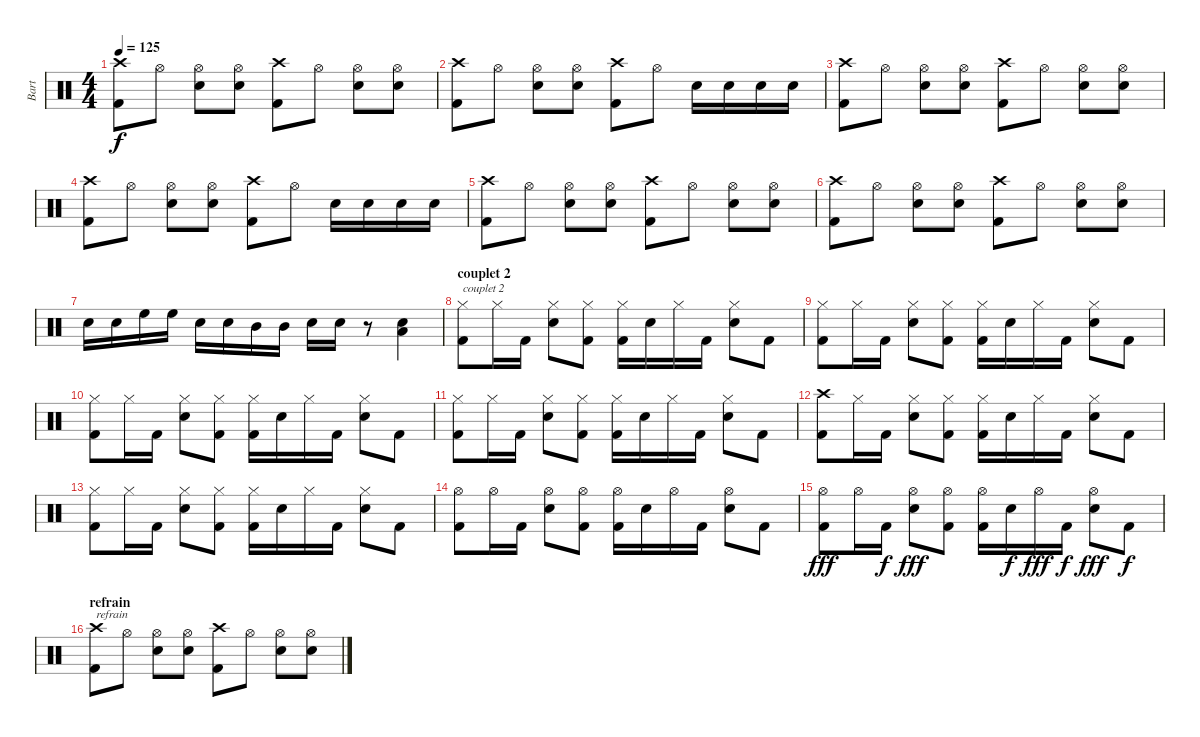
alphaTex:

\track ("Bart" "Bart") {instrument percussion}
\staff {score}
\articulation defaults
\ts (4 4)
\tempo 125
\clef neutral
\ks c
("Crash high (hit)" "Kick (hit) 2").8{dy f} "Hi-Hat (open)".8 ("Hi-Hat (open)" "Snare (hit) 2").8 ("Hi-Hat (open)" "Snare (hit) 2").8 ("Crash high (hit)" "Kick (hit) 2").8 "Hi-Hat (open)".8 ("Hi-Hat (open)" "Snare (hit) 2").8 ("Hi-Hat (open)" "Snare (hit) 2").8 |
("Crash high (hit)" "Kick (hit) 2").8 "Hi-Hat (open)".8 ("Hi-Hat (open)" "Snare (hit) 2").8 ("Hi-Hat (open)" "Snare (hit) 2").8 ("Crash high (hit)" "Kick (hit) 2").8 "Hi-Hat (open)".8 "Snare (hit) 2".16 "Snare (hit) 2".16 "Snare (hit) 2".16 "Snare (hit) 2".16 |
("Crash high (hit)" "Kick (hit) 2").8 "Hi-Hat (open)".8 ("Hi-Hat (open)" "Snare (hit) 2").8 ("Hi-Hat (open)" "Snare (hit) 2").8 ("Crash high (hit)" "Kick (hit) 2").8 "Hi-Hat (open)".8 ("Hi-Hat (open)" "Snare (hit) 2").8 ("Hi-Hat (open)" "Snare (hit) 2").8 |
("Crash high (hit)" "Kick (hit) 2").8 "Hi-Hat (open)".8 ("Hi-Hat (open)" "Snare (hit) 2").8 ("Hi-Hat (open)" "Snare (hit) 2").8 ("Crash high (hit)" "Kick (hit) 2").8 "Hi-Hat (open)".8 "Snare (hit) 2".16 "Snare (hit) 2".16 "Snare (hit) 2".16 "Snare (hit) 2".16 |
("Crash high (hit)" "Kick (hit) 2").8 "Hi-Hat (open)".8 ("Hi-Hat (open)" "Snare (hit) 2").8 ("Hi-Hat (open)" "Snare (hit) 2").8 ("Crash high (hit)" "Kick (hit) 2").8 "Hi-Hat (open)".8 ("Hi-Hat (open)" "Snare (hit) 2").8 ("Hi-Hat (open)" "Snare (hit) 2").8 |
("Crash high (hit)" "Kick (hit) 2").8 "Hi-Hat (open)".8 ("Hi-Hat (open)" "Snare (hit) 2").8 ("Hi-Hat (open)" "Snare (hit) 2").8 ("Crash high (hit)" "Kick (hit) 2").8 "Hi-Hat (open)".8 ("Hi-Hat (open)" "Snare (hit) 2").8 ("Hi-Hat (open)" "Snare (hit) 2").8 |
"Snare (hit) 2".16 "Snare (hit) 2".16 "High Floor Tom (hit)".16 "High Floor Tom (hit)".16 "Snare (hit) 2".16 "Snare (hit) 2".16 "Mid Tom (hit)".16 "Mid Tom (hit)".16 "Snare (hit) 2".16 "Snare (hit) 2".16 r.8 ("Snare (hit) 2" "Low Floor Tom (hit)").4 |
\section ("" "couplet 2")
("Hi-Hat (closed)" "Kick (hit) 2").8{txt "couplet 2"} "Hi-Hat (closed)".16 "Kick (hit) 2".16 ("Hi-Hat (closed)" "Snare (hit) 2").8 ("Hi-Hat (closed)" "Kick (hit) 2").8 ("Hi-Hat (closed)" "Kick (hit) 2").16 "Snare (hit) 2".16 "Hi-Hat (closed)".16 "Kick (hit) 2".16 ("Hi-Hat (closed)" "Snare (hit) 2").8 "Kick (hit) 2".8 |
("Hi-Hat (closed)" "Kick (hit) 2").8 "Hi-Hat (closed)".16 "Kick (hit) 2".16 ("Hi-Hat (closed)" "Snare (hit) 2").8 ("Hi-Hat (closed)" "Kick (hit) 2").8 ("Hi-Hat (closed)" "Kick (hit) 2").16 "Snare (hit) 2".16 "Hi-Hat (closed)".16 "Kick (hit) 2".16 ("Hi-Hat (closed)" "Snare (hit) 2").8 "Kick (hit) 2".8 |
("Hi-Hat (closed)" "Kick (hit) 2").8 "Hi-Hat (closed)".16 "Kick (hit) 2".16 ("Hi-Hat (closed)" "Snare (hit) 2").8 ("Hi-Hat (closed)" "Kick (hit) 2").8 ("Hi-Hat (closed)" "Kick (hit) 2").16 "Snare (hit) 2".16 "Hi-Hat (closed)".16 "Kick (hit) 2".16 ("Hi-Hat (closed)" "Snare (hit) 2").8 "Kick (hit) 2".8 |
("Hi-Hat (closed)" "Kick (hit) 2").8 "Hi-Hat (closed)".16 "Kick (hit) 2".16 ("Hi-Hat (closed)" "Snare (hit) 2").8 ("Hi-Hat (closed)" "Kick (hit) 2").8 ("Hi-Hat (closed)" "Kick (hit) 2").16 "Snare (hit) 2".16 "Hi-Hat (closed)".16 "Kick (hit) 2".16 ("Hi-Hat (closed)" "Snare (hit) 2").8 "Kick (hit) 2".8 |
("Crash high (hit)" "Kick (hit) 2").8 "Hi-Hat (closed)".16 "Kick (hit) 2".16 ("Hi-Hat (closed)" "Snare (hit) 2").8 ("Hi-Hat (closed)" "Kick (hit) 2").8 ("Hi-Hat (closed)" "Kick (hit) 2").16 "Snare (hit) 2".16 "Hi-Hat (closed)".16 "Kick (hit) 2".16 ("Hi-Hat (closed)" "Snare (hit) 2").8 "Kick (hit) 2".8 |
("Hi-Hat (closed)" "Kick (hit) 2").8 "Hi-Hat (closed)".16 "Kick (hit) 2".16 ("Hi-Hat (closed)" "Snare (hit) 2").8 ("Hi-Hat (closed)" "Kick (hit) 2").8 ("Hi-Hat (closed)" "Kick (hit) 2").16 "Snare (hit) 2".16 "Hi-Hat (closed)".16 "Kick (hit) 2".16 ("Hi-Hat (closed)" "Snare (hit) 2").8 "Kick (hit) 2".8 |
("Hi-Hat (open)" "Kick (hit) 2").8 "Hi-Hat (open)".16 "Kick (hit) 2".16 ("Hi-Hat (open)" "Snare (hit) 2").8 ("Hi-Hat (open)" "Kick (hit) 2").8 ("Hi-Hat (open)" "Kick (hit) 2").16 "Snare (hit) 2".16 "Hi-Hat (open)".16 "Kick (hit) 2".16 ("Hi-Hat (open)" "Snare (hit) 2").8 "Kick (hit) 2".8 |
("Hi-Hat (open)" "Kick (hit) 2").8{dy fff} "Hi-Hat (open)".16 "Kick (hit) 2".16{dy f} ("Hi-Hat (open)" "Snare (hit) 2").8{dy fff} ("Hi-Hat (open)" "Kick (hit) 2").8 ("Hi-Hat (open)" "Kick (hit) 2").16 "Snare (hit) 2".16{dy f} "Hi-Hat (open)".16{dy fff} "Kick (hit) 2".16{dy f} ("Hi-Hat (open)" "Snare (hit) 2").8{dy fff} "Kick (hit) 2".8{dy f} |
\section ("" "refrain")
("Crash high (hit)" "Kick (hit) 2").8{txt "refrain"} "Hi-Hat (open)".8 ("Hi-Hat (open)" "Snare (hit) 2").8 ("Hi-Hat (open)" "Snare (hit) 2").8 ("Crash high (hit)" "Kick (hit) 2").8 "Hi-Hat (open)".8 ("Hi-Hat (open)" "Snare (hit) 2").8 ("Hi-Hat (open)" "Snare (hit) 2").8
